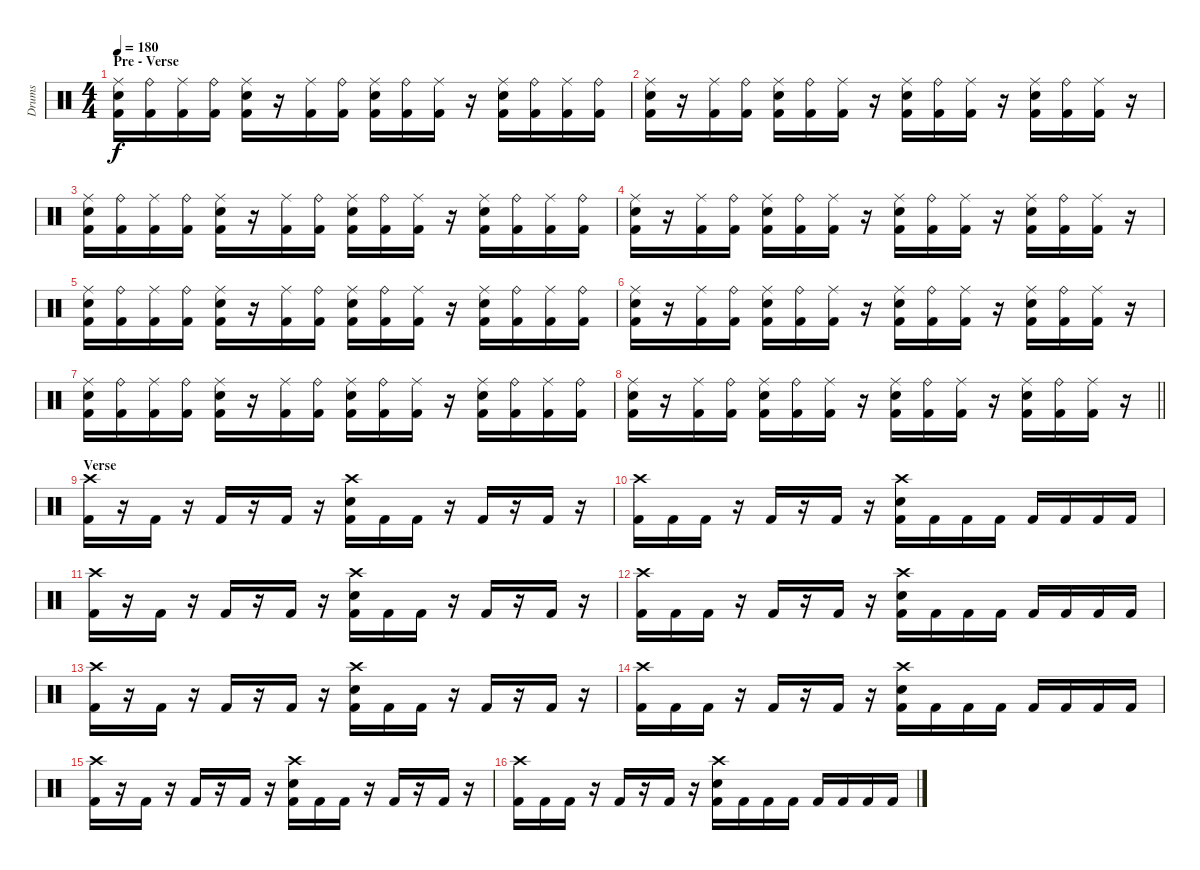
\track ("Drums" "Drums") {instrument percussion}
\staff {score}
\articulation defaults
\ts (4 4)
\section ("" "Pre - Verse")
\tempo 180
\clef neutral
\ks c
("Ride (middle)" "Electric Snare (hit)" "Kick (hit) 2").16{dy f} ("Ride (bell)" "Kick (hit) 2").16 ("Ride (middle)" "Kick (hit) 2").16 ("Ride (bell)" "Kick (hit) 2").16 ("Ride (middle)" "Electric Snare (hit)" "Kick (hit) 2").16 r.16 ("Ride (middle)" "Kick (hit) 2").16 ("Ride (bell)" "Kick (hit) 2").16 ("Ride (middle)" "Electric Snare (hit)" "Kick (hit) 2").16 ("Ride (bell)" "Kick (hit) 2").16 ("Ride (middle)" "Kick (hit) 2").16 r.16 ("Ride (middle)" "Electric Snare (hit)" "Kick (hit) 2").16 ("Ride (bell)" "Kick (hit) 2").16 ("Ride (middle)" "Kick (hit) 2").16 ("Ride (bell)" "Kick (hit) 2").16 |
("Ride (middle)" "Electric Snare (hit)" "Kick (hit) 2").16 r.16 ("Ride (middle)" "Kick (hit) 2").16 ("Ride (bell)" "Kick (hit) 2").16 ("Ride (middle)" "Electric Snare (hit)" "Kick (hit) 2").16 ("Ride (bell)" "Kick (hit) 2").16 ("Ride (middle)" "Kick (hit) 2").16 r.16 ("Ride (middle)" "Electric Snare (hit)" "Kick (hit) 2").16 ("Ride (bell)" "Kick (hit) 2").16 ("Ride (middle)" "Kick (hit) 2").16 r.16 ("Ride (middle)" "Electric Snare (hit)" "Kick (hit) 2").16 ("Ride (bell)" "Kick (hit) 2").16 ("Ride (middle)" "Kick (hit) 2").16 r.16 |
("Ride (middle)" "Electric Snare (hit)" "Kick (hit) 2").16 ("Ride (bell)" "Kick (hit) 2").16 ("Ride (middle)" "Kick (hit) 2").16 ("Ride (bell)" "Kick (hit) 2").16 ("Ride (middle)" "Electric Snare (hit)" "Kick (hit) 2").16 r.16 ("Ride (middle)" "Kick (hit) 2").16 ("Ride (bell)" "Kick (hit) 2").16 ("Ride (middle)" "Electric Snare (hit)" "Kick (hit) 2").16 ("Ride (bell)" "Kick (hit) 2").16 ("Ride (middle)" "Kick (hit) 2").16 r.16 ("Ride (middle)" "Electric Snare (hit)" "Kick (hit) 2").16 ("Ride (bell)" "Kick (hit) 2").16 ("Ride (middle)" "Kick (hit) 2").16 ("Ride (bell)" "Kick (hit) 2").16 |
("Ride (middle)" "Electric Snare (hit)" "Kick (hit) 2").16 r.16 ("Ride (middle)" "Kick (hit) 2").16 ("Ride (bell)" "Kick (hit) 2").16 ("Ride (middle)" "Electric Snare (hit)" "Kick (hit) 2").16 ("Ride (bell)" "Kick (hit) 2").16 ("Ride (middle)" "Kick (hit) 2").16 r.16 ("Ride (middle)" "Electric Snare (hit)" "Kick (hit) 2").16 ("Ride (bell)" "Kick (hit) 2").16 ("Ride (middle)" "Kick (hit) 2").16 r.16 ("Ride (middle)" "Electric Snare (hit)" "Kick (hit) 2").16 ("Ride (bell)" "Kick (hit) 2").16 ("Ride (middle)" "Kick (hit) 2").16 r.16 |
("Ride (middle)" "Electric Snare (hit)" "Kick (hit) 2").16 ("Ride (bell)" "Kick (hit) 2").16 ("Ride (middle)" "Kick (hit) 2").16 ("Ride (bell)" "Kick (hit) 2").16 ("Ride (middle)" "Electric Snare (hit)" "Kick (hit) 2").16 r.16 ("Ride (middle)" "Kick (hit) 2").16 ("Ride (bell)" "Kick (hit) 2").16 ("Ride (middle)" "Electric Snare (hit)" "Kick (hit) 2").16 ("Ride (bell)" "Kick (hit) 2").16 ("Ride (middle)" "Kick (hit) 2").16 r.16 ("Ride (middle)" "Electric Snare (hit)" "Kick (hit) 2").16 ("Ride (bell)" "Kick (hit) 2").16 ("Ride (middle)" "Kick (hit) 2").16 ("Ride (bell)" "Kick (hit) 2").16 |
("Ride (middle)" "Electric Snare (hit)" "Kick (hit) 2").16 r.16 ("Ride (middle)" "Kick (hit) 2").16 ("Ride (bell)" "Kick (hit) 2").16 ("Ride (middle)" "Electric Snare (hit)" "Kick (hit) 2").16 ("Ride (bell)" "Kick (hit) 2").16 ("Ride (middle)" "Kick (hit) 2").16 r.16 ("Ride (middle)" "Electric Snare (hit)" "Kick (hit) 2").16 ("Ride (bell)" "Kick (hit) 2").16 ("Ride (middle)" "Kick (hit) 2").16 r.16 ("Ride (middle)" "Electric Snare (hit)" "Kick (hit) 2").16 ("Ride (bell)" "Kick (hit) 2").16 ("Ride (middle)" "Kick (hit) 2").16 r.16 |
("Ride (middle)" "Electric Snare (hit)" "Kick (hit) 2").16 ("Ride (bell)" "Kick (hit) 2").16 ("Ride (middle)" "Kick (hit) 2").16 ("Ride (bell)" "Kick (hit) 2").16 ("Ride (middle)" "Electric Snare (hit)" "Kick (hit) 2").16 r.16 ("Ride (middle)" "Kick (hit) 2").16 ("Ride (bell)" "Kick (hit) 2").16 ("Ride (middle)" "Electric Snare (hit)" "Kick (hit) 2").16 ("Ride (bell)" "Kick (hit) 2").16 ("Ride (middle)" "Kick (hit) 2").16 r.16 ("Ride (middle)" "Electric Snare (hit)" "Kick (hit) 2").16 ("Ride (bell)" "Kick (hit) 2").16 ("Ride (middle)" "Kick (hit) 2").16 ("Ride (bell)" "Kick (hit) 2").16 |
\barLineRight lightlight
("Ride (middle)" "Electric Snare (hit)" "Kick (hit) 2").16 r.16 ("Ride (middle)" "Kick (hit) 2").16 ("Ride (bell)" "Kick (hit) 2").16 ("Ride (middle)" "Electric Snare (hit)" "Kick (hit) 2").16 ("Ride (bell)" "Kick (hit) 2").16 ("Ride (middle)" "Kick (hit) 2").16 r.16 ("Ride (middle)" "Electric Snare (hit)" "Kick (hit) 2").16 ("Ride (bell)" "Kick (hit) 2").16 ("Ride (middle)" "Kick (hit) 2").16 r.16 ("Ride (middle)" "Electric Snare (hit)" "Kick (hit) 2").16 ("Ride (bell)" "Kick (hit) 2").16 ("Ride (middle)" "Kick (hit) 2").16 r.16 |
\section ("" "Verse")
("Crash high (hit)" "Kick (hit) 2").16 r.16 "Kick (hit) 2".16 r.16 "Kick (hit) 2".16 r.16 "Kick (hit) 2".16 r.16 ("Crash high (hit)" "Electric Snare (hit)" "Kick (hit) 2").16 "Kick (hit) 2".16 "Kick (hit) 2".16 r.16 "Kick (hit) 2".16 r.16 "Kick (hit) 2".16 r.16 |
("Crash high (hit)" "Kick (hit) 2").16 "Kick (hit) 2".16 "Kick (hit) 2".16 r.16 "Kick (hit) 2".16 r.16 "Kick (hit) 2".16 r.16 ("Crash high (hit)" "Electric Snare (hit)" "Kick (hit) 2").16 "Kick (hit) 2".16 "Kick (hit) 2".16 "Kick (hit) 2".16 "Kick (hit) 2".16 "Kick (hit) 2".16 "Kick (hit) 2".16 "Kick (hit) 2".16 |
("Crash high (hit)" "Kick (hit) 2").16 r.16 "Kick (hit) 2".16 r.16 "Kick (hit) 2".16 r.16 "Kick (hit) 2".16 r.16 ("Crash high (hit)" "Electric Snare (hit)" "Kick (hit) 2").16 "Kick (hit) 2".16 "Kick (hit) 2".16 r.16 "Kick (hit) 2".16 r.16 "Kick (hit) 2".16 r.16 |
("Crash high (hit)" "Kick (hit) 2").16 "Kick (hit) 2".16 "Kick (hit) 2".16 r.16 "Kick (hit) 2".16 r.16 "Kick (hit) 2".16 r.16 ("Crash high (hit)" "Electric Snare (hit)" "Kick (hit) 2").16 "Kick (hit) 2".16 "Kick (hit) 2".16 "Kick (hit) 2".16 "Kick (hit) 2".16 "Kick (hit) 2".16 "Kick (hit) 2".16 "Kick (hit) 2".16 |
("Crash high (hit)" "Kick (hit) 2").16 r.16 "Kick (hit) 2".16 r.16 "Kick (hit) 2".16 r.16 "Kick (hit) 2".16 r.16 ("Crash high (hit)" "Electric Snare (hit)" "Kick (hit) 2").16 "Kick (hit) 2".16 "Kick (hit) 2".16 r.16 "Kick (hit) 2".16 r.16 "Kick (hit) 2".16 r.16 |
("Crash high (hit)" "Kick (hit) 2").16 "Kick (hit) 2".16 "Kick (hit) 2".16 r.16 "Kick (hit) 2".16 r.16 "Kick (hit) 2".16 r.16 ("Crash high (hit)" "Electric Snare (hit)" "Kick (hit) 2").16 "Kick (hit) 2".16 "Kick (hit) 2".16 "Kick (hit) 2".16 "Kick (hit) 2".16 "Kick (hit) 2".16 "Kick (hit) 2".16 "Kick (hit) 2".16 |
("Crash high (hit)" "Kick (hit) 2").16 r.16 "Kick (hit) 2".16 r.16 "Kick (hit) 2".16 r.16 "Kick (hit) 2".16 r.16 ("Crash high (hit)" "Electric Snare (hit)" "Kick (hit) 2").16 "Kick (hit) 2".16 "Kick (hit) 2".16 r.16 "Kick (hit) 2".16 r.16 "Kick (hit) 2".16 r.16 |
("Crash high (hit)" "Kick (hit) 2").16 "Kick (hit) 2".16 "Kick (hit) 2".16 r.16 "Kick (hit) 2".16 r.16 "Kick (hit) 2".16 r.16 ("Crash high (hit)" "Electric Snare (hit)" "Kick (hit) 2").16 "Kick (hit) 2".16 "Kick (hit) 2".16 "Kick (hit) 2".16 "Kick (hit) 2".16 "Kick (hit) 2".16 "Kick (hit) 2".16 "Kick (hit) 2".16
